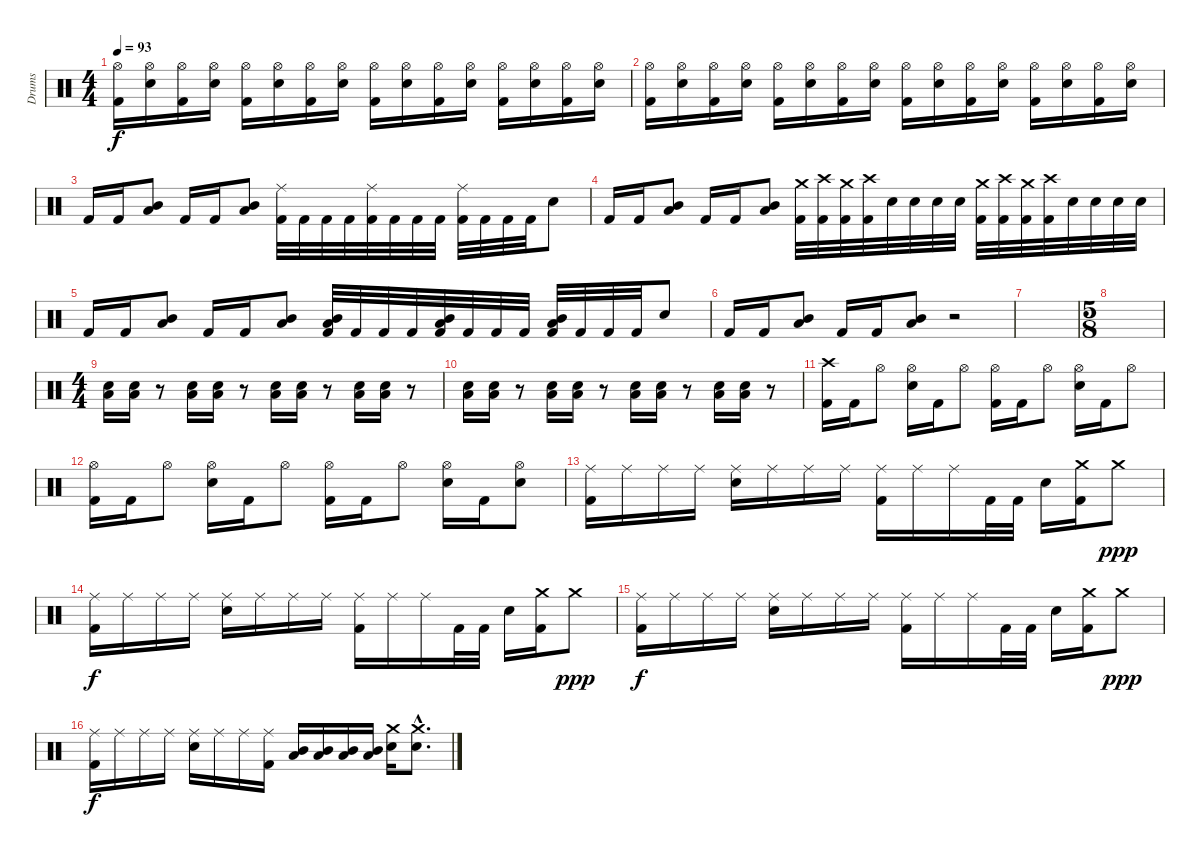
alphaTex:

\track ("Drums" "Drums") {instrument percussion}
\staff {score}
\articulation defaults
\ts (4 4)
\tempo 93
\clef neutral
\ks c
("Hi-Hat (open)" "Kick (hit) 2").16{dy f} ("Hi-Hat (open)" "Electric Snare (hit)").16 ("Hi-Hat (open)" "Kick (hit) 2").16 ("Hi-Hat (open)" "Electric Snare (hit)").16 ("Hi-Hat (open)" "Kick (hit) 2").16 ("Hi-Hat (open)" "Electric Snare (hit)").16 ("Hi-Hat (open)" "Kick (hit) 2").16 ("Hi-Hat (open)" "Electric Snare (hit)").16 ("Hi-Hat (open)" "Kick (hit) 2").16 ("Hi-Hat (open)" "Electric Snare (hit)").16 ("Hi-Hat (open)" "Kick (hit) 2").16 ("Hi-Hat (open)" "Electric Snare (hit)").16 ("Hi-Hat (open)" "Kick (hit) 2").16 ("Hi-Hat (open)" "Electric Snare (hit)").16 ("Hi-Hat (open)" "Kick (hit) 2").16 ("Hi-Hat (open)" "Electric Snare (hit)").16 |
("Hi-Hat (open)" "Kick (hit) 2").16 ("Hi-Hat (open)" "Electric Snare (hit)").16 ("Hi-Hat (open)" "Kick (hit) 2").16 ("Hi-Hat (open)" "Electric Snare (hit)").16 ("Hi-Hat (open)" "Kick (hit) 2").16 ("Hi-Hat (open)" "Electric Snare (hit)").16 ("Hi-Hat (open)" "Kick (hit) 2").16 ("Hi-Hat (open)" "Electric Snare (hit)").16 ("Hi-Hat (open)" "Kick (hit) 2").16 ("Hi-Hat (open)" "Electric Snare (hit)").16 ("Hi-Hat (open)" "Kick (hit) 2").16 ("Hi-Hat (open)" "Electric Snare (hit)").16 ("Hi-Hat (open)" "Kick (hit) 2").16 ("Hi-Hat (open)" "Electric Snare (hit)").16 ("Hi-Hat (open)" "Kick (hit) 2").16 ("Hi-Hat (open)" "Electric Snare (hit)").16 |
"Kick (hit) 2".16 "Kick (hit) 2".16 ("Mid Tom (hit)" "Low Tom (hit)").8 "Kick (hit) 2".16 "Kick (hit) 2".16 ("Mid Tom (hit)" "Low Tom (hit)").8 ("Ride (middle)" "Kick (hit) 2").32 "Kick (hit) 2".32 "Kick (hit) 2".32 "Kick (hit) 2".32 ("Ride (middle)" "Kick (hit) 2").32 "Kick (hit) 2".32 "Kick (hit) 2".32 "Kick (hit) 2".32 ("Ride (middle)" "Kick (hit) 2").32 "Kick (hit) 2".32 "Kick (hit) 2".32 "Kick (hit) 2".32 "Electric Snare (hit)".8 |
"Kick (hit) 2".16 "Kick (hit) 2".16 ("Mid Tom (hit)" "Low Tom (hit)").8 "Kick (hit) 2".16 "Kick (hit) 2".16 ("Mid Tom (hit)" "Low Tom (hit)").8 ("Crash medium (hit)" "Kick (hit) 2").32 ("Crash high (hit)" "Kick (hit) 2").32 ("Crash medium (hit)" "Kick (hit) 2").32 ("Crash high (hit)" "Kick (hit) 2").32 "Electric Snare (hit)".32 "Electric Snare (hit)".32 "Electric Snare (hit)".32 "Electric Snare (hit)".32 ("Crash medium (hit)" "Kick (hit) 2").32 ("Crash high (hit)" "Kick (hit) 2").32 ("Crash medium (hit)" "Kick (hit) 2").32 ("Crash high (hit)" "Kick (hit) 2").32 "Electric Snare (hit)".32 "Electric Snare (hit)".32 "Electric Snare (hit)".32 "Electric Snare (hit)".32 |
"Kick (hit) 2".16 "Kick (hit) 2".16 ("Mid Tom (hit)" "Low Tom (hit)").8 "Kick (hit) 2".16 "Kick (hit) 2".16 ("Mid Tom (hit)" "Low Tom (hit)").8 ("Mid Tom (hit)" "Low Tom (hit)" "Kick (hit) 2").32 "Kick (hit) 2".32 "Kick (hit) 2".32 "Kick (hit) 2".32 ("Mid Tom (hit)" "Low Tom (hit)" "Kick (hit) 2").32 "Kick (hit) 2".32 "Kick (hit) 2".32 "Kick (hit) 2".32 ("Mid Tom (hit)" "Low Tom (hit)" "Kick (hit) 2").32 "Kick (hit) 2".32 "Kick (hit) 2".32 "Kick (hit) 2".32 "Electric Snare (hit)".8 |
"Kick (hit) 2".16 "Kick (hit) 2".16 ("Mid Tom (hit)" "Low Tom (hit)").8 "Kick (hit) 2".16 "Kick (hit) 2".16 ("Mid Tom (hit)" "Low Tom (hit)").8 r.2 |
|
\ts (5 8)
|
\ts (4 4)
("Electric Snare (hit)" "Low Tom (hit)").16 ("Electric Snare (hit)" "Low Tom (hit)").16 r.8 ("Electric Snare (hit)" "Low Tom (hit)").16 ("Electric Snare (hit)" "Low Tom (hit)").16 r.8 ("Electric Snare (hit)" "Low Tom (hit)").16 ("Electric Snare (hit)" "Low Tom (hit)").16 r.8 ("Electric Snare (hit)" "Low Tom (hit)").16 ("Electric Snare (hit)" "Low Tom (hit)").16 r.8 |
("Electric Snare (hit)" "Low Tom (hit)").16 ("Electric Snare (hit)" "Low Tom (hit)").16 r.8 ("Electric Snare (hit)" "Low Tom (hit)").16 ("Electric Snare (hit)" "Low Tom (hit)").16 r.8 ("Electric Snare (hit)" "Low Tom (hit)").16 ("Electric Snare (hit)" "Low Tom (hit)").16 r.8 ("Electric Snare (hit)" "Low Tom (hit)").16 ("Electric Snare (hit)" "Low Tom (hit)").16 r.8 |
("Crash high (hit)" "Kick (hit) 2").16 "Kick (hit) 2".16 "Hi-Hat (open)".8 ("Hi-Hat (open)" "Electric Snare (hit)").16 "Kick (hit) 2".16 "Hi-Hat (open)".8 ("Hi-Hat (open)" "Kick (hit) 2").16 "Kick (hit) 2".16 "Hi-Hat (open)".8 ("Hi-Hat (open)" "Electric Snare (hit)").16 "Kick (hit) 2".16 "Hi-Hat (open)".8 |
("Hi-Hat (open)" "Kick (hit) 2").16 "Kick (hit) 2".16 "Hi-Hat (open)".8 ("Hi-Hat (open)" "Electric Snare (hit)").16 "Kick (hit) 2".16 "Hi-Hat (open)".8 ("Hi-Hat (open)" "Kick (hit) 2").16 "Kick (hit) 2".16 "Hi-Hat (open)".8 ("Hi-Hat (open)" "Electric Snare (hit)").16 "Kick (hit) 2".16 ("Hi-Hat (open)" "Electric Snare (hit)").8 |
("Ride (middle)" "Kick (hit) 2").16 "Ride (middle)".16 "Ride (middle)".16 "Ride (middle)".16 ("Ride (middle)" "Electric Snare (hit)").16 "Ride (middle)".16 "Ride (middle)".16 "Ride (middle)".16 ("Ride (middle)" "Kick (hit) 2").16 "Ride (middle)".16 "Ride (middle)".16 "Kick (hit) 2".32 "Kick (hit) 2".32 "Electric Snare (hit)".16 ("Crash medium (hit)" "Kick (hit) 2").16 "Crash medium (hit)".8{dy ppp} |
("Ride (middle)" "Kick (hit) 2").16{dy f} "Ride (middle)".16 "Ride (middle)".16 "Ride (middle)".16 ("Ride (middle)" "Electric Snare (hit)").16 "Ride (middle)".16 "Ride (middle)".16 "Ride (middle)".16 ("Ride (middle)" "Kick (hit) 2").16 "Ride (middle)".16 "Ride (middle)".16 "Kick (hit) 2".32 "Kick (hit) 2".32 "Electric Snare (hit)".16 ("Crash medium (hit)" "Kick (hit) 2").16 "Crash medium (hit)".8{dy ppp} |
("Ride (middle)" "Kick (hit) 2").16{dy f} "Ride (middle)".16 "Ride (middle)".16 "Ride (middle)".16 ("Ride (middle)" "Electric Snare (hit)").16 "Ride (middle)".16 "Ride (middle)".16 "Ride (middle)".16 ("Ride (middle)" "Kick (hit) 2").16 "Ride (middle)".16 "Ride (middle)".16 "Kick (hit) 2".32 "Kick (hit) 2".32 "Electric Snare (hit)".16 ("Crash medium (hit)" "Kick (hit) 2").16 "Crash medium (hit)".8{dy ppp} |
("Ride (middle)" "Kick (hit) 2").16{dy f} "Ride (middle)".16 "Ride (middle)".16 "Ride (middle)".16 ("Ride (middle)" "Electric Snare (hit)").16 "Ride (middle)".16 "Ride (middle)".16 ("Ride (middle)" "Kick (hit) 2").16 ("Mid Tom (hit)" "Low Tom (hit)").16 ("Mid Tom (hit)" "Low Tom (hit)").16 ("Mid Tom (hit)" "Low Tom (hit)").16 ("Mid Tom (hit)" "Low Tom (hit)").16 ("Crash medium (hit)" "Electric Snare (hit)").16 ("Crash medium (hit)"{hac} "Electric Snare (hit)"{hac}).8{d}
